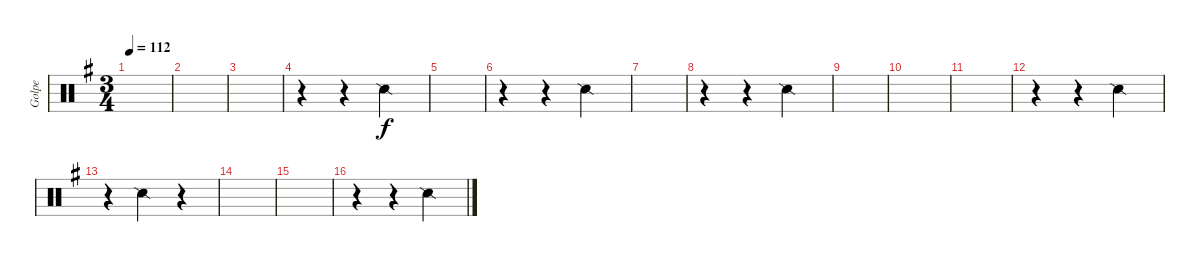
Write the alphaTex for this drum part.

\track ("Golpe" "Golpe") {instrument percussion}
\staff {score}
\articulation defaults
\ts (3 4)
\tempo 112
\clef neutral
\ks g
|
|
|
r.4 r.4 "Snare (side stick) 2".4 |
|
r.4 r.4 "Snare (side stick) 2".4 |
|
r.4 r.4 "Snare (side stick) 2".4 |
|
|
|
r.4 r.4 "Snare (side stick) 2".4 |
r.4 "Snare (side stick) 2".4 r.4 |
|
|
r.4 r.4 "Snare (side stick) 2".4
